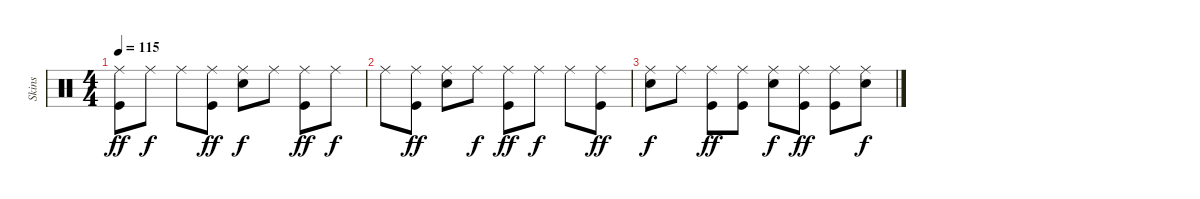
\track ("Skins" "Skins") {instrument percussion}
\staff {score}
\articulation defaults
\ts (4 4)
\tempo 115
\clef neutral
\ks c
("Ride (middle)" "Kick (hit)").8{dy ff} "Ride (middle)".8{dy f} "Ride (middle)".8 ("Ride (middle)" "Kick (hit)").8{dy ff} ("Ride (middle)" "Electric Snare (hit)").8{dy f} "Ride (middle)".8 ("Ride (middle)" "Kick (hit)").8{dy ff} "Ride (middle)".8{dy f} |
"Ride (middle)".8 ("Ride (middle)" "Kick (hit)").8{dy ff} ("Ride (middle)" "Electric Snare (hit)").8 "Ride (middle)".8{dy f} ("Ride (middle)" "Kick (hit)").8{dy ff} "Ride (middle)".8{dy f} "Ride (middle)".8 ("Ride (middle)" "Kick (hit)").8{dy ff} |
("Ride (middle)" "Electric Snare (hit)").8{dy f} "Ride (middle)".8 ("Ride (middle)" "Kick (hit)").8{dy ff} ("Ride (middle)" "Kick (hit)").8 ("Ride (middle)" "Electric Snare (hit)").8{dy f} ("Ride (middle)" "Kick (hit)").8{dy ff} ("Ride (middle)" "Kick (hit)").8 ("Ride (middle)" "Electric Snare (hit)").8{dy f}
